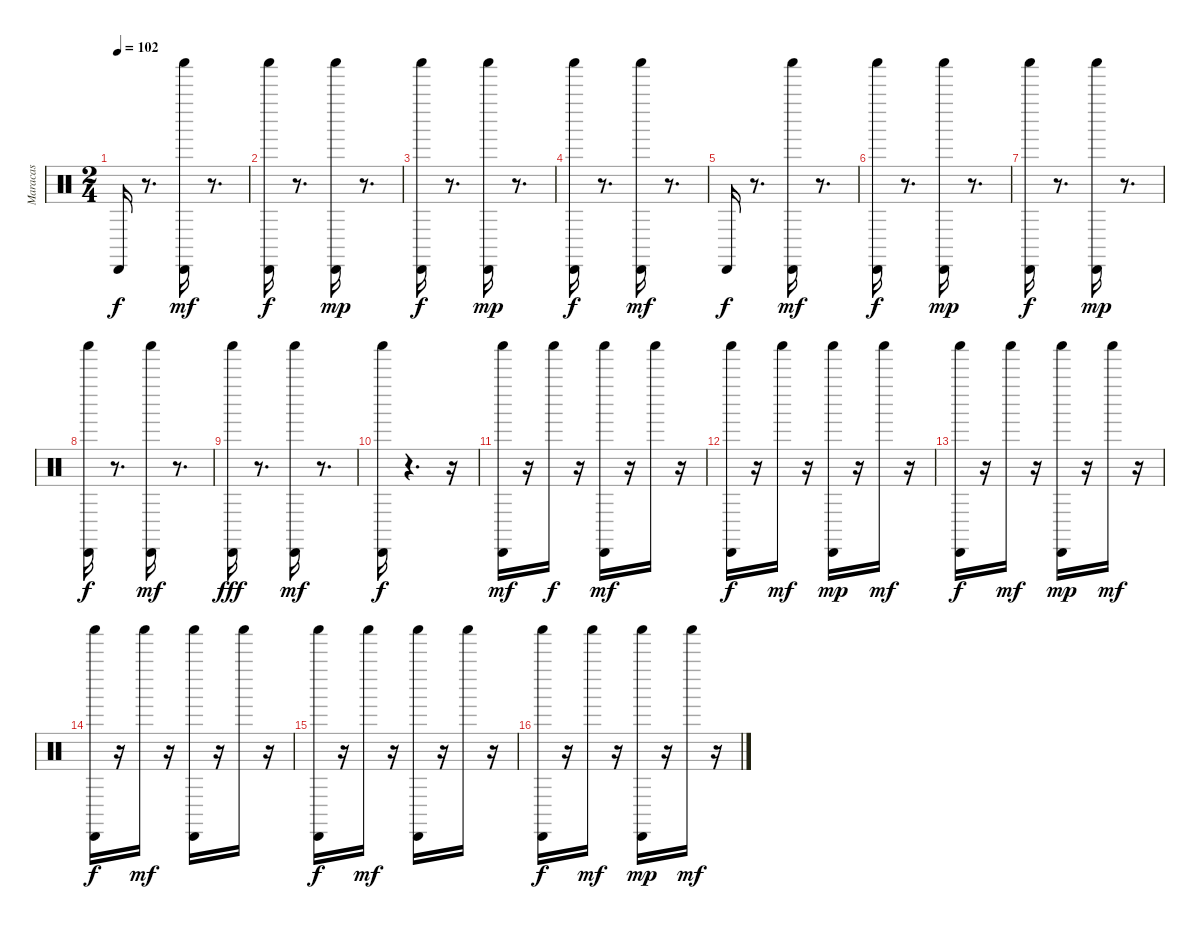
\track ("Maracas" "Maracas") {instrument percussion}
\staff {score}
\articulation defaults
\ts (2 4)
\tempo 102
\clef neutral
\ks c "Cabasa (hit)".16{dy f}
r.8{d} ("Shaker (hit)" "Cabasa (hit)").16{dy mf} r.8{d} |
("Shaker (hit)" "Cabasa (hit)").16{dy f} r.8{d} ("Shaker (hit)" "Cabasa (hit)").16{dy mp} r.8{d} |
("Cabasa (hit)" "Shaker (hit)").16{dy f} r.8{d} ("Cabasa (hit)" "Shaker (hit)").16{dy mp} r.8{d} |
("Cabasa (hit)" "Shaker (hit)").16{dy f} r.8{d} ("Cabasa (hit)" "Shaker (hit)").16{dy mf} r.8{d} |
"Cabasa (hit)".16{dy f} r.8{d} ("Shaker (hit)" "Cabasa (hit)").16{dy mf} r.8{d} |
("Shaker (hit)" "Cabasa (hit)").16{dy f} r.8{d} ("Shaker (hit)" "Cabasa (hit)").16{dy mp} r.8{d} |
("Cabasa (hit)" "Shaker (hit)").16{dy f} r.8{d} ("Cabasa (hit)" "Shaker (hit)").16{dy mp} r.8{d} |
("Cabasa (hit)" "Shaker (hit)").16{dy f} r.8{d} ("Cabasa (hit)" "Shaker (hit)").16{dy mf} r.8{d} |
("Shaker (hit)" "Cabasa (hit)").16{dy fff} r.8{d} ("Shaker (hit)" "Cabasa (hit)").16{dy mf} r.8{d} |
("Shaker (hit)" "Cabasa (hit)").16{dy f} r.4{d} r.16 |
("Shaker (hit)" "Cabasa (hit)").16{dy mf} r.16 "Shaker (hit)".16{dy f} r.16 ("Shaker (hit)" "Cabasa (hit)").16{dy mf} r.16 "Shaker (hit)".16 r.16 |
("Shaker (hit)" "Cabasa (hit)").16{dy f} r.16 "Shaker (hit)".16{dy mf} r.16 ("Shaker (hit)" "Cabasa (hit)").16{dy mp} r.16 "Shaker (hit)".16{dy mf} r.16 |
("Cabasa (hit)" "Shaker (hit)").16{dy f} r.16 "Shaker (hit)".16{dy mf} r.16 ("Cabasa (hit)" "Shaker (hit)").16{dy mp} r.16 "Shaker (hit)".16{dy mf} r.16 |
("Cabasa (hit)" "Shaker (hit)").16{dy f} r.16 "Shaker (hit)".16{dy mf} r.16 ("Cabasa (hit)" "Shaker (hit)").16 r.16 "Shaker (hit)".16 r.16 |
("Shaker (hit)" "Cabasa (hit)").16{dy f} r.16 "Shaker (hit)".16{dy mf} r.16 ("Shaker (hit)" "Cabasa (hit)").16 r.16 "Shaker (hit)".16 r.16 |
("Shaker (hit)" "Cabasa (hit)").16{dy f} r.16 "Shaker (hit)".16{dy mf} r.16 ("Shaker (hit)" "Cabasa (hit)").16{dy mp} r.16 "Shaker (hit)".16{dy mf} r.16
